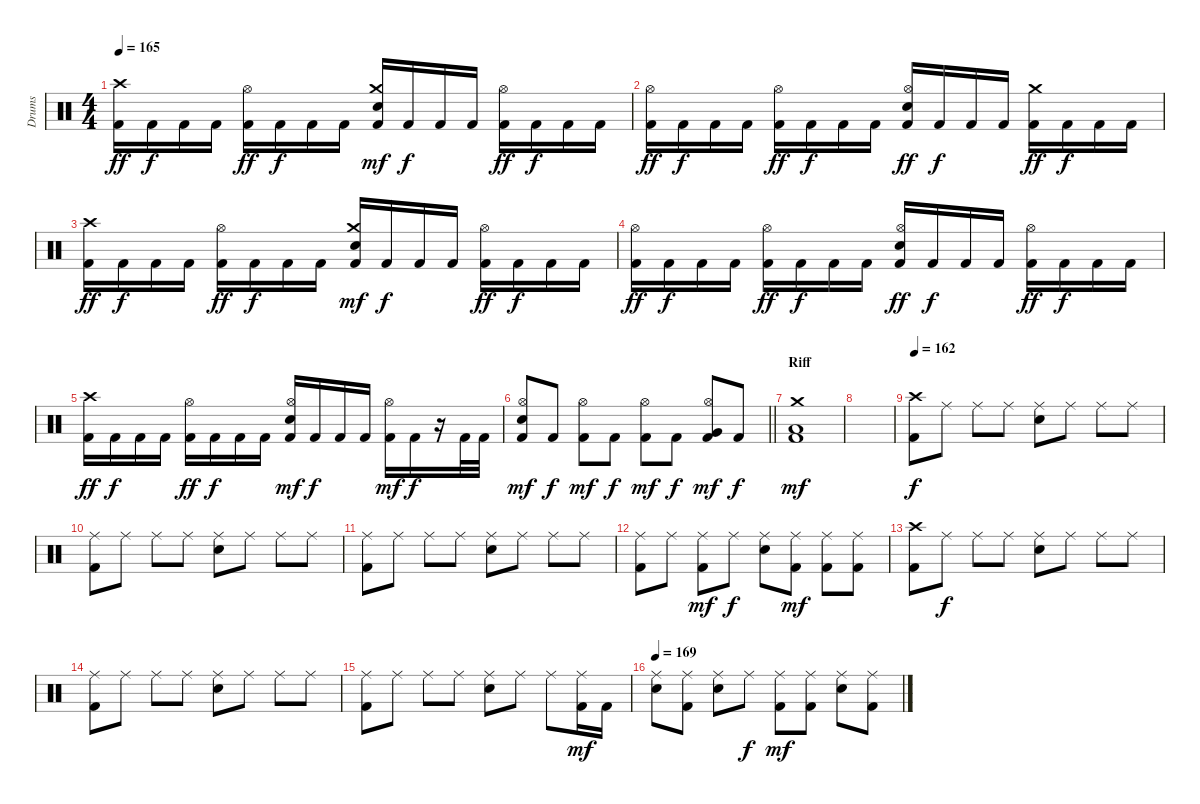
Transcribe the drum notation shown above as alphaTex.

\track ("Drums" "Drums") {instrument percussion}
\staff {score}
\articulation defaults
\ts (4 4)
\tempo 165
\clef neutral
\ks c
("Crash high (hit)" "Kick (hit) 2").16{dy ff} "Kick (hit) 2".16{dy f} "Kick (hit) 2".16 "Kick (hit) 2".16 ("Hi-Hat (open)" "Kick (hit) 2").16{dy ff} "Kick (hit) 2".16{dy f} "Kick (hit) 2".16 "Kick (hit) 2".16 ("Crash medium (hit)" "Snare (hit) 2" "Kick (hit) 2").16{dy mf} "Kick (hit) 2".16{dy f} "Kick (hit) 2".16 "Kick (hit) 2".16 ("Hi-Hat (open)" "Kick (hit) 2").16{dy ff} "Kick (hit) 2".16{dy f} "Kick (hit) 2".16 "Kick (hit) 2".16 |
("Hi-Hat (open)" "Kick (hit) 2").16{dy ff} "Kick (hit) 2".16{dy f} "Kick (hit) 2".16 "Kick (hit) 2".16 ("Hi-Hat (open)" "Kick (hit) 2").16{dy ff} "Kick (hit) 2".16{dy f} "Kick (hit) 2".16 "Kick (hit) 2".16 ("Hi-Hat (open)" "Snare (hit) 2" "Kick (hit) 2").16{dy ff} "Kick (hit) 2".16{dy f} "Kick (hit) 2".16 "Kick (hit) 2".16 ("Crash medium (hit)" "Kick (hit) 2").16{dy ff} "Kick (hit) 2".16{dy f} "Kick (hit) 2".16 "Kick (hit) 2".16 |
("Crash high (hit)" "Kick (hit) 2").16{dy ff} "Kick (hit) 2".16{dy f} "Kick (hit) 2".16 "Kick (hit) 2".16 ("Hi-Hat (open)" "Kick (hit) 2").16{dy ff} "Kick (hit) 2".16{dy f} "Kick (hit) 2".16 "Kick (hit) 2".16 ("Crash medium (hit)" "Snare (hit) 2" "Kick (hit) 2").16{dy mf} "Kick (hit) 2".16{dy f} "Kick (hit) 2".16 "Kick (hit) 2".16 ("Hi-Hat (open)" "Kick (hit) 2").16{dy ff} "Kick (hit) 2".16{dy f} "Kick (hit) 2".16 "Kick (hit) 2".16 |
("Hi-Hat (open)" "Kick (hit) 2").16{dy ff} "Kick (hit) 2".16{dy f} "Kick (hit) 2".16 "Kick (hit) 2".16 ("Hi-Hat (open)" "Kick (hit) 2").16{dy ff} "Kick (hit) 2".16{dy f} "Kick (hit) 2".16 "Kick (hit) 2".16 ("Hi-Hat (open)" "Snare (hit) 2" "Kick (hit) 2").16{dy ff} "Kick (hit) 2".16{dy f} "Kick (hit) 2".16 "Kick (hit) 2".16 ("Hi-Hat (open)" "Kick (hit) 2").16{dy ff} "Kick (hit) 2".16{dy f} "Kick (hit) 2".16 "Kick (hit) 2".16 |
("Crash high (hit)" "Kick (hit) 2").16{dy ff} "Kick (hit) 2".16{dy f} "Kick (hit) 2".16 "Kick (hit) 2".16 ("Hi-Hat (open)" "Kick (hit) 2").16{dy ff} "Kick (hit) 2".16{dy f} "Kick (hit) 2".16 "Kick (hit) 2".16 ("Hi-Hat (open)" "Snare (hit) 2" "Kick (hit) 2").16{dy mf} "Kick (hit) 2".16{dy f} "Kick (hit) 2".16 "Kick (hit) 2".16 ("Hi-Hat (open)" "Kick (hit) 2").16{dy mf} "Kick (hit) 2".16{dy f} r.16 "Kick (hit) 2".32 "Kick (hit) 2".32 |
\barLineRight lightlight
("Hi-Hat (open)" "Snare (hit) 2" "Kick (hit) 2").8{dy mf} "Kick (hit) 2".8{dy f} ("Hi-Hat (open)" "Kick (hit) 2").8{dy mf} "Kick (hit) 2".8{dy f} ("Hi-Hat (open)" "Kick (hit) 2").8{dy mf} "Kick (hit) 2".8{dy f} ("Very Low Tom (hit)" "Hi-Hat (open)" "Kick (hit) 2").8{dy mf} "Kick (hit) 2".8{dy f} |
\section ("" "Riff")
("Crash medium (hit)" "Low Floor Tom (hit)" "Kick (hit) 2").1{dy mf} |
|
\tempo 162
("Crash high (hit)" "Kick (hit) 2").8{dy f} "Ride (middle)".8 "Ride (middle)".8 "Ride (middle)".8 ("Ride (middle)" "Snare (hit) 2").8 "Ride (middle)".8 "Ride (middle)".8 "Ride (middle)".8 |
("Ride (middle)" "Kick (hit) 2").8 "Ride (middle)".8 "Ride (middle)".8 "Ride (middle)".8 ("Ride (middle)" "Snare (hit) 2").8 "Ride (middle)".8 "Ride (middle)".8 "Ride (middle)".8 |
("Ride (middle)" "Kick (hit) 2").8 "Ride (middle)".8 "Ride (middle)".8 "Ride (middle)".8 ("Ride (middle)" "Snare (hit) 2").8 "Ride (middle)".8 "Ride (middle)".8 "Ride (middle)".8 |
("Ride (middle)" "Kick (hit) 2").8 "Ride (middle)".8 ("Ride (middle)" "Kick (hit) 2").8{dy mf} "Ride (middle)".8{dy f} ("Ride (middle)" "Snare (hit) 2").8 ("Ride (middle)" "Kick (hit) 2").8{dy mf} ("Ride (middle)" "Kick (hit) 2").8 ("Ride (middle)" "Kick (hit) 2").8 |
("Crash high (hit)" "Kick (hit) 2").8 "Ride (middle)".8{dy f} "Ride (middle)".8 "Ride (middle)".8 ("Ride (middle)" "Snare (hit) 2").8 "Ride (middle)".8 "Ride (middle)".8 "Ride (middle)".8 |
("Ride (middle)" "Kick (hit) 2").8 "Ride (middle)".8 "Ride (middle)".8 "Ride (middle)".8 ("Ride (middle)" "Snare (hit) 2").8 "Ride (middle)".8 "Ride (middle)".8 "Ride (middle)".8 |
("Ride (middle)" "Kick (hit) 2").8 "Ride (middle)".8 "Ride (middle)".8 "Ride (middle)".8 ("Ride (middle)" "Snare (hit) 2").8 "Ride (middle)".8 "Ride (middle)".8 ("Ride (middle)" "Kick (hit) 2").16{dy mf} "Kick (hit) 2".16 |
\tempo 169
("Ride (middle)" "Snare (hit) 2").8 ("Ride (middle)" "Kick (hit) 2").8 ("Ride (middle)" "Snare (hit) 2").8 "Ride (middle)".8{dy f} ("Ride (middle)" "Kick (hit) 2").8{dy mf} ("Ride (middle)" "Kick (hit) 2").8 ("Ride (middle)" "Snare (hit) 2").8 ("Ride (middle)" "Kick (hit) 2").8
